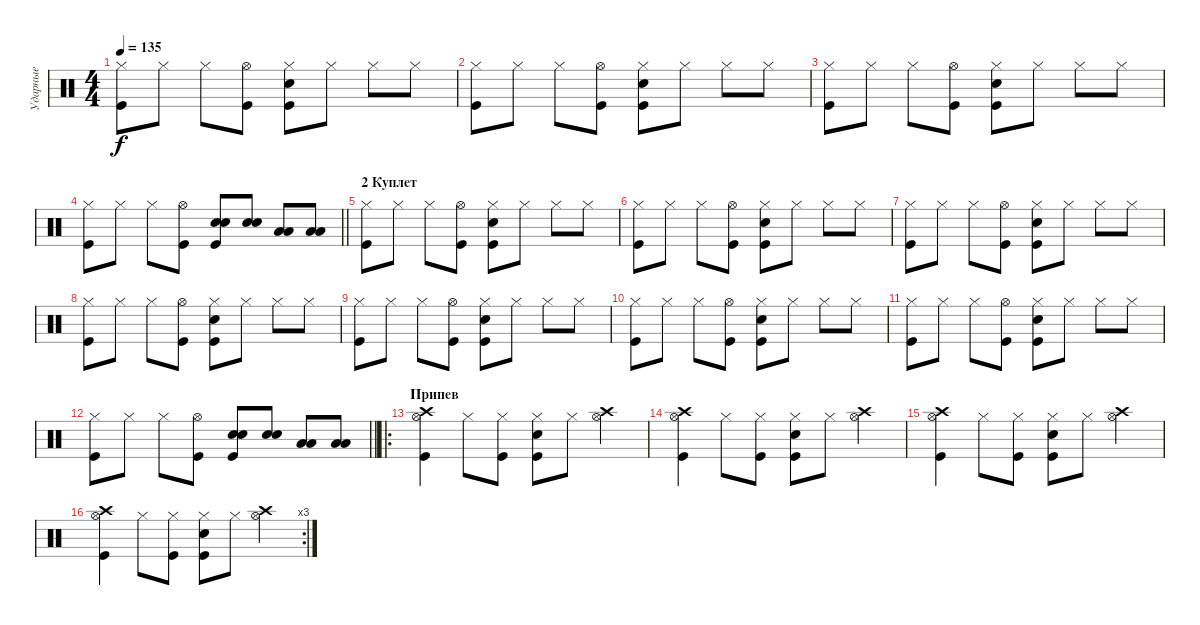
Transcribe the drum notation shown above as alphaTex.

\track ("Ударные" "Ударные") {instrument percussion}
\staff {score}
\articulation defaults
\ts (4 4)
\tempo 135
\clef neutral
\ks c
("Hi-Hat (closed)" "Kick (hit)").8{dy f} "Hi-Hat (closed)".8 "Hi-Hat (closed)".8 ("Hi-Hat (open)" "Kick (hit)").8 ("Hi-Hat (closed)" "Snare (hit) 2" "Kick (hit)").8 "Hi-Hat (closed)".8 "Hi-Hat (closed)".8 "Hi-Hat (closed)".8 |
("Hi-Hat (closed)" "Kick (hit)").8 "Hi-Hat (closed)".8 "Hi-Hat (closed)".8 ("Hi-Hat (open)" "Kick (hit)").8 ("Hi-Hat (closed)" "Snare (hit) 2" "Kick (hit)").8 "Hi-Hat (closed)".8 "Hi-Hat (closed)".8 "Hi-Hat (closed)".8 |
("Hi-Hat (closed)" "Kick (hit)").8 "Hi-Hat (closed)".8 "Hi-Hat (closed)".8 ("Hi-Hat (open)" "Kick (hit)").8 ("Hi-Hat (closed)" "Snare (hit) 2" "Kick (hit)").8 "Hi-Hat (closed)".8 "Hi-Hat (closed)".8 "Hi-Hat (closed)".8 |
\barLineRight lightlight
("Hi-Hat (closed)" "Kick (hit)").8 "Hi-Hat (closed)".8 "Hi-Hat (closed)".8 ("Hi-Hat (open)" "Kick (hit)").8 ("Snare (hit) 2" "Snare (hit) 2" "Kick (hit)").8 ("Snare (hit) 2" "Snare (hit) 2").8 ("Low Tom (hit)" "Low Tom (hit)").8 ("Low Tom (hit)" "Low Tom (hit)").8 |
\section ("" "2 Куплет")
("Hi-Hat (closed)" "Kick (hit)").8 "Hi-Hat (closed)".8 "Hi-Hat (closed)".8 ("Hi-Hat (open)" "Kick (hit)").8 ("Hi-Hat (closed)" "Snare (hit) 2" "Kick (hit)").8 "Hi-Hat (closed)".8 "Hi-Hat (closed)".8 "Hi-Hat (closed)".8 |
("Hi-Hat (closed)" "Kick (hit)").8 "Hi-Hat (closed)".8 "Hi-Hat (closed)".8 ("Hi-Hat (open)" "Kick (hit)").8 ("Hi-Hat (closed)" "Snare (hit) 2" "Kick (hit)").8 "Hi-Hat (closed)".8 "Hi-Hat (closed)".8 "Hi-Hat (closed)".8 |
("Hi-Hat (closed)" "Kick (hit)").8 "Hi-Hat (closed)".8 "Hi-Hat (closed)".8 ("Hi-Hat (open)" "Kick (hit)").8 ("Hi-Hat (closed)" "Snare (hit) 2" "Kick (hit)").8 "Hi-Hat (closed)".8 "Hi-Hat (closed)".8 "Hi-Hat (closed)".8 |
("Hi-Hat (closed)" "Kick (hit)").8 "Hi-Hat (closed)".8 "Hi-Hat (closed)".8 ("Hi-Hat (open)" "Kick (hit)").8 ("Hi-Hat (closed)" "Snare (hit) 2" "Kick (hit)").8 "Hi-Hat (closed)".8 "Hi-Hat (closed)".8 "Hi-Hat (closed)".8 |
("Hi-Hat (closed)" "Kick (hit)").8 "Hi-Hat (closed)".8 "Hi-Hat (closed)".8 ("Hi-Hat (open)" "Kick (hit)").8 ("Hi-Hat (closed)" "Snare (hit) 2" "Kick (hit)").8 "Hi-Hat (closed)".8 "Hi-Hat (closed)".8 "Hi-Hat (closed)".8 |
("Hi-Hat (closed)" "Kick (hit)").8 "Hi-Hat (closed)".8 "Hi-Hat (closed)".8 ("Hi-Hat (open)" "Kick (hit)").8 ("Hi-Hat (closed)" "Snare (hit) 2" "Kick (hit)").8 "Hi-Hat (closed)".8 "Hi-Hat (closed)".8 "Hi-Hat (closed)".8 |
("Hi-Hat (closed)" "Kick (hit)").8 "Hi-Hat (closed)".8 "Hi-Hat (closed)".8 ("Hi-Hat (open)" "Kick (hit)").8 ("Hi-Hat (closed)" "Snare (hit) 2" "Kick (hit)").8 "Hi-Hat (closed)".8 "Hi-Hat (closed)".8 "Hi-Hat (closed)".8 |
\barLineRight lightlight
("Hi-Hat (closed)" "Kick (hit)").8 "Hi-Hat (closed)".8 "Hi-Hat (closed)".8 ("Hi-Hat (open)" "Kick (hit)").8 ("Snare (hit) 2" "Snare (hit) 2" "Kick (hit)").8 ("Snare (hit) 2" "Snare (hit) 2").8 ("Low Tom (hit)" "Low Tom (hit)").8 ("Low Tom (hit)" "Low Tom (hit)").8 |
\ro
\section ("" "Припев")
("Hi-Hat (open)" "Crash high (hit)" "Kick (hit)").4 "Hi-Hat (closed)".8 ("Hi-Hat (closed)" "Kick (hit)").8 ("Hi-Hat (closed)" "Snare (hit) 2" "Kick (hit)").8 "Hi-Hat (closed)".8 ("Hi-Hat (open)" "Crash high (hit)").4 |
("Hi-Hat (open)" "Crash high (hit)" "Kick (hit)").4 "Hi-Hat (closed)".8 ("Hi-Hat (closed)" "Kick (hit)").8 ("Hi-Hat (closed)" "Snare (hit) 2" "Kick (hit)").8 "Hi-Hat (closed)".8 ("Hi-Hat (open)" "Crash high (hit)").4 |
("Hi-Hat (open)" "Crash high (hit)" "Kick (hit)").4 "Hi-Hat (closed)".8 ("Hi-Hat (closed)" "Kick (hit)").8 ("Hi-Hat (closed)" "Snare (hit) 2" "Kick (hit)").8 "Hi-Hat (closed)".8 ("Hi-Hat (open)" "Crash high (hit)").4 |
\rc 3
("Hi-Hat (open)" "Crash high (hit)" "Kick (hit)").4 "Hi-Hat (closed)".8 ("Hi-Hat (closed)" "Kick (hit)").8 ("Hi-Hat (closed)" "Snare (hit) 2" "Kick (hit)").8 "Hi-Hat (closed)".8 ("Hi-Hat (open)" "Crash high (hit)").4
